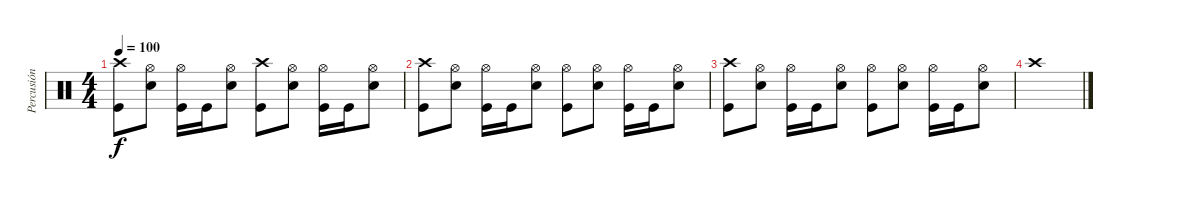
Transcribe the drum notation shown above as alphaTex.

\track ("Percusión" "Percusión") {instrument percussion}
\staff {score}
\articulation defaults
\ts (4 4)
\tempo 100
\clef neutral
\ks c
("Crash high (hit)" "Kick (hit)").8{dy f} ("Hi-Hat (open)" "Electric Snare (hit)").8 ("Hi-Hat (open)" "Kick (hit)").16 "Kick (hit)".16 ("Hi-Hat (open)" "Electric Snare (hit)").8 ("Crash high (hit)" "Kick (hit)").8 ("Hi-Hat (open)" "Electric Snare (hit)").8 ("Hi-Hat (open)" "Kick (hit)").16 "Kick (hit)".16 ("Hi-Hat (open)" "Electric Snare (hit)").8 |
("Crash high (hit)" "Kick (hit)").8 ("Hi-Hat (open)" "Electric Snare (hit)").8 ("Hi-Hat (open)" "Kick (hit)").16 "Kick (hit)".16 ("Hi-Hat (open)" "Electric Snare (hit)").8 ("Hi-Hat (open)" "Kick (hit)").8 ("Hi-Hat (open)" "Electric Snare (hit)").8 ("Hi-Hat (open)" "Kick (hit)").16 "Kick (hit)".16 ("Hi-Hat (open)" "Electric Snare (hit)").8 |
("Crash high (hit)" "Kick (hit)").8 ("Hi-Hat (open)" "Electric Snare (hit)").8 ("Hi-Hat (open)" "Kick (hit)").16 "Kick (hit)".16 ("Hi-Hat (open)" "Electric Snare (hit)").8 ("Hi-Hat (open)" "Kick (hit)").8 ("Hi-Hat (open)" "Electric Snare (hit)").8 ("Hi-Hat (open)" "Kick (hit)").16 "Kick (hit)".16 ("Hi-Hat (open)" "Electric Snare (hit)").8 |
"Crash high (hit)".1
